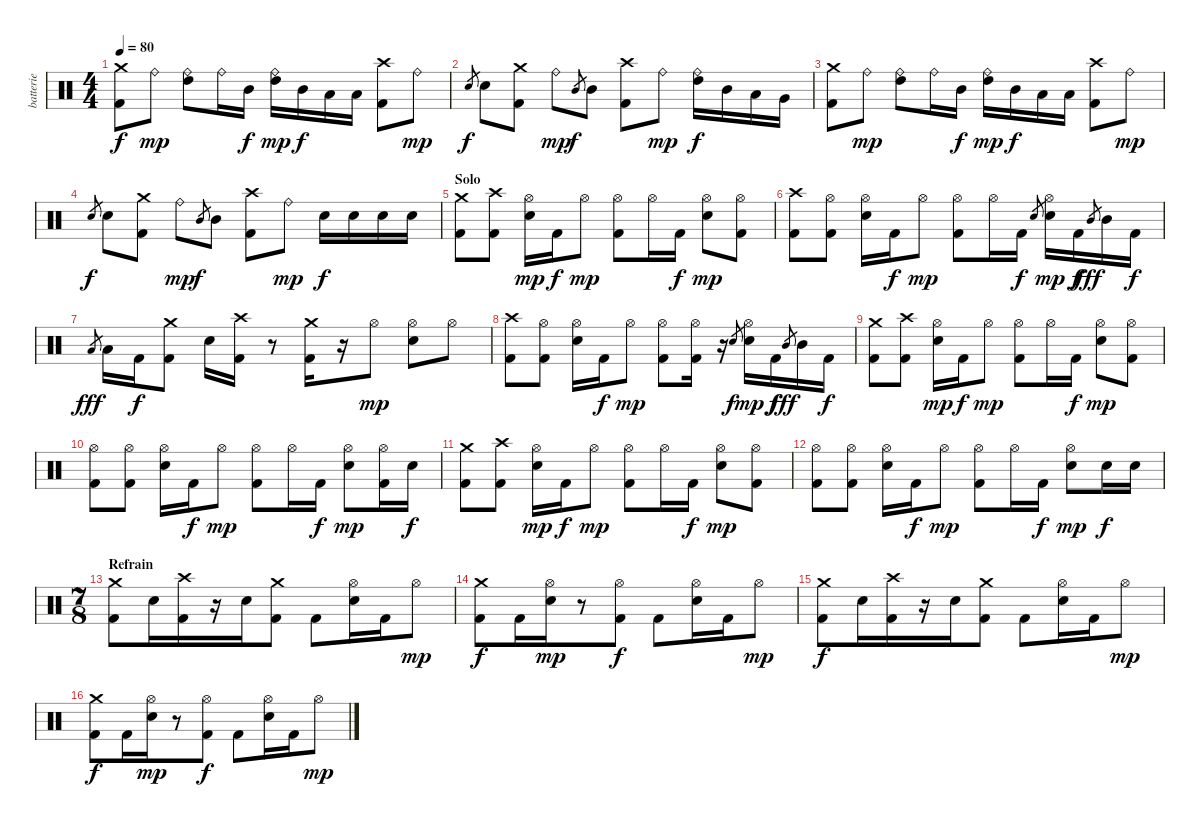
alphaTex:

\track ("batterie" "batterie") {instrument percussion}
\staff {score}
\articulation defaults
\ts (4 4)
\tempo 80
\clef neutral
\ks c
("Crash medium (hit)" "Kick (hit) 2").8{dy f} "Ride (bell)".8{dy mp} ("Ride (bell)" "High Tom (hit)").8 "Ride (bell)".16 "Mid Tom (hit)".16{dy f} ("Ride (bell)" "High Tom (hit)").16{dy mp} "Mid Tom (hit)".16{dy f} "Low Tom (hit)".16 "Low Tom (hit)".16 ("Crash high (hit)" "Kick (hit) 2").8 "Ride (bell)".8{dy mp} |
"Electric Snare (hit)".8{gr dy f} "Electric Snare (hit)".8 ("Crash medium (hit)" "Kick (hit) 2").8 "Ride (bell)".8{dy mp} "Mid Tom (hit)".8{gr dy f} "Mid Tom (hit)".8 ("Crash high (hit)" "Kick (hit) 2").8 "Ride (bell)".8{dy mp} ("Ride (bell)" "High Tom (hit)").16{dy f} "Mid Tom (hit)".16 "Low Tom (hit)".16 "Very Low Tom (hit)".16 |
("Crash medium (hit)" "Kick (hit) 2").8 "Ride (bell)".8{dy mp} ("Ride (bell)" "High Tom (hit)").8 "Ride (bell)".16 "Mid Tom (hit)".16{dy f} ("Ride (bell)" "High Tom (hit)").16{dy mp} "Mid Tom (hit)".16{dy f} "Low Tom (hit)".16 "Low Tom (hit)".16 ("Crash high (hit)" "Kick (hit) 2").8 "Ride (bell)".8{dy mp} |
"Electric Snare (hit)".8{gr dy f} "Electric Snare (hit)".8 ("Crash medium (hit)" "Kick (hit) 2").8 "Ride (bell)".8{dy mp} "Mid Tom (hit)".8{gr dy f} "Mid Tom (hit)".8 ("Crash high (hit)" "Kick (hit) 2").8 "Ride (bell)".8{dy mp} "Electric Snare (hit)".16{dy f} "Electric Snare (hit)".16 "Electric Snare (hit)".16 "Electric Snare (hit)".16 |
\section ("" "Solo")
("Crash medium (hit)" "Kick (hit) 2").8 ("Crash high (hit)" "Kick (hit) 2").8 ("Hi-Hat (open)" "Electric Snare (hit)").16{dy mp} "Kick (hit) 2".16{dy f} "Hi-Hat (open)".8{dy mp} ("Hi-Hat (open)" "Kick (hit) 2").8 "Hi-Hat (open)".16 "Kick (hit) 2".16{dy f} ("Hi-Hat (open)" "Electric Snare (hit)").8{dy mp} ("Hi-Hat (open)" "Kick (hit) 2").8 |
("Crash high (hit)" "Kick (hit) 2").8 ("Hi-Hat (open)" "Kick (hit) 2").8 ("Hi-Hat (open)" "Electric Snare (hit)").16 "Kick (hit) 2".16{dy f} "Hi-Hat (open)".8{dy mp} ("Hi-Hat (open)" "Kick (hit) 2").8 "Hi-Hat (open)".16 "Kick (hit) 2".16{dy f} "Electric Snare (hit)".8{gr} ("Hi-Hat (open)" "Electric Snare (hit)").16{dy mp} "Kick (hit) 2".16{dy f} "Mid Tom (hit)".8{gr dy fff} "Mid Tom (hit)".16 "Kick (hit) 2".16{dy f} |
"Low Tom (hit)".8{gr dy fff} "Low Tom (hit)".16 "Kick (hit) 2".16{dy f} ("Crash medium (hit)" "Kick (hit) 2").8 "Electric Snare (hit)".16 ("Crash high (hit)" "Kick (hit) 2").16 r.8 ("Crash medium (hit)" "Kick (hit) 2").16 r.16 "Hi-Hat (open)".8{dy mp} ("Hi-Hat (open)" "Electric Snare (hit)").8 "Hi-Hat (open)".8 |
("Crash high (hit)" "Kick (hit) 2").8 ("Hi-Hat (open)" "Kick (hit) 2").8 ("Hi-Hat (open)" "Electric Snare (hit)").16 "Kick (hit) 2".16{dy f} "Hi-Hat (open)".8{dy mp} ("Hi-Hat (open)" "Kick (hit) 2").8 ("Hi-Hat (open)" "Kick (hit) 2").16 r.16 "Electric Snare (hit)".8{gr dy f} ("Hi-Hat (open)" "Electric Snare (hit)").16{dy mp} "Kick (hit) 2".16{dy f} "Mid Tom (hit)".8{gr dy fff} "Mid Tom (hit)".16 "Kick (hit) 2".16{dy f} |
("Crash medium (hit)" "Kick (hit) 2").8 ("Crash high (hit)" "Kick (hit) 2").8 ("Hi-Hat (open)" "Electric Snare (hit)").16{dy mp} "Kick (hit) 2".16{dy f} "Hi-Hat (open)".8{dy mp} ("Hi-Hat (open)" "Kick (hit) 2").8 "Hi-Hat (open)".16 "Kick (hit) 2".16{dy f} ("Hi-Hat (open)" "Electric Snare (hit)").8{dy mp} ("Hi-Hat (open)" "Kick (hit) 2").8 |
("Hi-Hat (open)" "Kick (hit) 2").8 ("Hi-Hat (open)" "Kick (hit) 2").8 ("Hi-Hat (open)" "Electric Snare (hit)").16 "Kick (hit) 2".16{dy f} "Hi-Hat (open)".8{dy mp} ("Hi-Hat (open)" "Kick (hit) 2").8 "Hi-Hat (open)".16 "Kick (hit) 2".16{dy f} ("Hi-Hat (open)" "Electric Snare (hit)").8{dy mp} ("Hi-Hat (open)" "Kick (hit) 2").16 "Electric Snare (hit)".16{dy f} |
("Crash medium (hit)" "Kick (hit) 2").8 ("Crash high (hit)" "Kick (hit) 2").8 ("Hi-Hat (open)" "Electric Snare (hit)").16{dy mp} "Kick (hit) 2".16{dy f} "Hi-Hat (open)".8{dy mp} ("Hi-Hat (open)" "Kick (hit) 2").8 "Hi-Hat (open)".16 "Kick (hit) 2".16{dy f} ("Hi-Hat (open)" "Electric Snare (hit)").8{dy mp} ("Hi-Hat (open)" "Kick (hit) 2").8 |
("Hi-Hat (open)" "Kick (hit) 2").8 ("Hi-Hat (open)" "Kick (hit) 2").8 ("Hi-Hat (open)" "Electric Snare (hit)").16 "Kick (hit) 2".16{dy f} "Hi-Hat (open)".8{dy mp} ("Hi-Hat (open)" "Kick (hit) 2").8 "Hi-Hat (open)".16 "Kick (hit) 2".16{dy f} ("Hi-Hat (open)" "Electric Snare (hit)").8{dy mp} "Electric Snare (hit)".16{dy f} "Electric Snare (hit)".16 |
\ts (7 8)
\section ("" "Refrain")
("Crash medium (hit)" "Kick (hit) 2").8 "Electric Snare (hit)".16 ("Crash high (hit)" "Kick (hit) 2").16 r.16 "Electric Snare (hit)".16 ("Crash medium (hit)" "Kick (hit) 2").8 "Kick (hit) 2".8 ("Hi-Hat (open)" "Electric Snare (hit)").16 "Kick (hit) 2".16 "Hi-Hat (open)".8{dy mp} |
("Crash medium (hit)" "Kick (hit) 2").8{dy f} "Kick (hit) 2".16 ("Hi-Hat (open)" "Electric Snare (hit)").16{dy mp} r.8 ("Hi-Hat (open)" "Kick (hit) 2").8{dy f} "Kick (hit) 2".8 ("Hi-Hat (open)" "Electric Snare (hit)").16 "Kick (hit) 2".16 "Hi-Hat (open)".8{dy mp} |
("Crash medium (hit)" "Kick (hit) 2").8{dy f} "Electric Snare (hit)".16 ("Crash high (hit)" "Kick (hit) 2").16 r.16 "Electric Snare (hit)".16 ("Crash medium (hit)" "Kick (hit) 2").8 "Kick (hit) 2".8 ("Hi-Hat (open)" "Electric Snare (hit)").16 "Kick (hit) 2".16 "Hi-Hat (open)".8{dy mp} |
("Crash medium (hit)" "Kick (hit) 2").8{dy f} "Kick (hit) 2".16 ("Hi-Hat (open)" "Electric Snare (hit)").16{dy mp} r.8 ("Hi-Hat (open)" "Kick (hit) 2").8{dy f} "Kick (hit) 2".8 ("Hi-Hat (open)" "Electric Snare (hit)").16 "Kick (hit) 2".16 "Hi-Hat (open)".8{dy mp}
